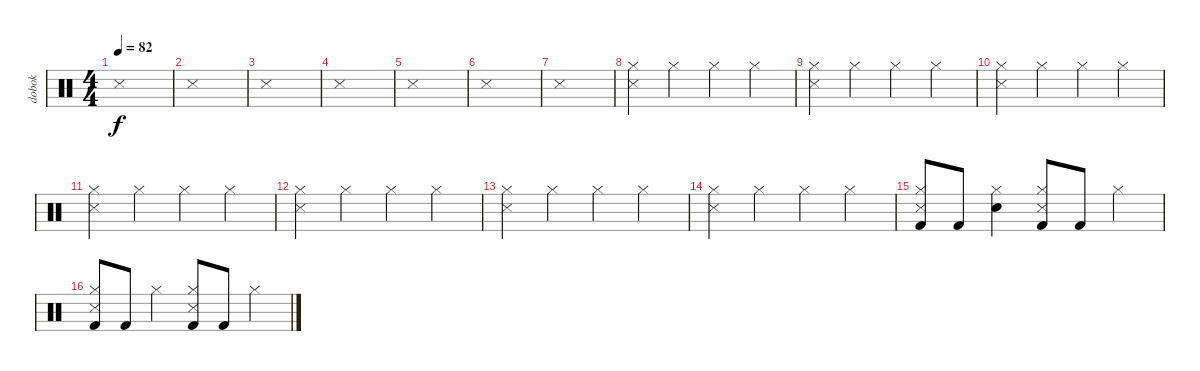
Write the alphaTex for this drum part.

\track ("dobok" "dobok") {instrument percussion}
\staff {score}
\articulation defaults
\ts (4 4)
\tempo 82
\clef neutral
\ks c "Snare (side stick) 3".1{dy f}
|
"Snare (side stick) 3".1 |
"Snare (side stick) 3".1 |
"Snare (side stick) 3".1 |
"Snare (side stick) 3".1 |
"Snare (side stick) 3".1 |
"Snare (side stick) 3".1 |
("Hi-Hat (closed)" "Snare (side stick) 3").4 "Hi-Hat (closed)".4 "Hi-Hat (closed)".4 "Hi-Hat (closed)".4 |
("Hi-Hat (closed)" "Snare (side stick) 3").4 "Hi-Hat (closed)".4 "Hi-Hat (closed)".4 "Hi-Hat (closed)".4 |
("Hi-Hat (closed)" "Snare (side stick) 3").4 "Hi-Hat (closed)".4 "Hi-Hat (closed)".4 "Hi-Hat (closed)".4 |
("Hi-Hat (closed)" "Snare (side stick) 3").4 "Hi-Hat (closed)".4 "Hi-Hat (closed)".4 "Hi-Hat (closed)".4 |
("Hi-Hat (closed)" "Snare (side stick) 3").4 "Hi-Hat (closed)".4 "Hi-Hat (closed)".4 "Hi-Hat (closed)".4 |
("Hi-Hat (closed)" "Snare (side stick) 3").4 "Hi-Hat (closed)".4 "Hi-Hat (closed)".4 "Hi-Hat (closed)".4 |
("Hi-Hat (closed)" "Snare (side stick) 3").4 "Hi-Hat (closed)".4 "Hi-Hat (closed)".4 "Hi-Hat (closed)".4 |
("Hi-Hat (closed)" "Snare (side stick) 3" "Kick (hit) 2").8 "Kick (hit) 2".8 ("Hi-Hat (closed)" "Snare (hit) 2").4 ("Hi-Hat (closed)" "Snare (side stick) 3" "Kick (hit) 2").8 "Kick (hit) 2".8 "Hi-Hat (closed)".4 |
("Hi-Hat (closed)" "Snare (side stick) 3" "Kick (hit) 2").8 "Kick (hit) 2".8 "Hi-Hat (closed)".4 ("Hi-Hat (closed)" "Snare (side stick) 3" "Kick (hit) 2").8 "Kick (hit) 2".8 "Hi-Hat (closed)".4
